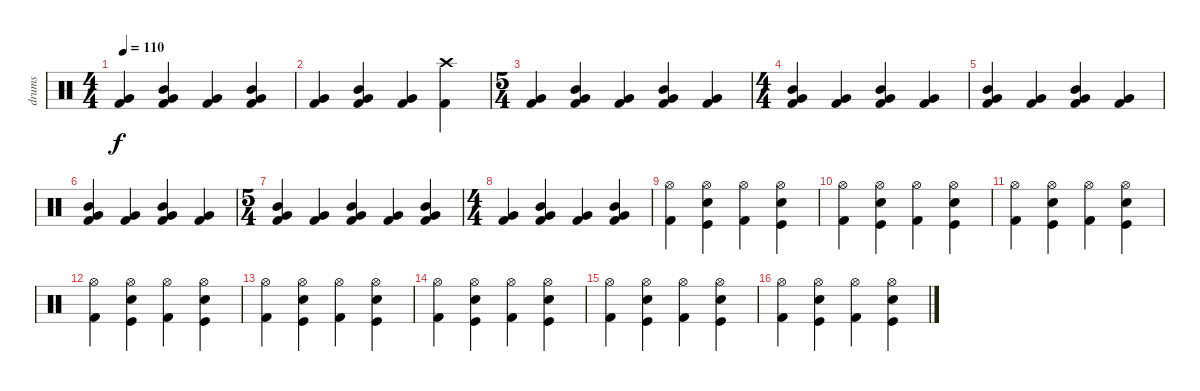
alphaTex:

\track ("drums" "drums") {instrument percussion}
\staff {score}
\articulation defaults
\ts (4 4)
\tempo 110
\clef neutral
\ks c
("Very Low Tom (hit)" "Kick (hit) 2").4{dy f} ("Mid Tom (hit)" "Very Low Tom (hit)" "Kick (hit) 2").4 ("Very Low Tom (hit)" "Kick (hit) 2").4 ("Mid Tom (hit)" "Very Low Tom (hit)" "Kick (hit) 2").4 |
("Very Low Tom (hit)" "Kick (hit) 2").4 ("Mid Tom (hit)" "Very Low Tom (hit)" "Kick (hit) 2").4 ("Very Low Tom (hit)" "Kick (hit) 2").4 ("Crash high (hit)" "Kick (hit) 2").4 |
\ts (5 4)
("Very Low Tom (hit)" "Kick (hit) 2").4 ("Mid Tom (hit)" "Very Low Tom (hit)" "Kick (hit) 2").4 ("Very Low Tom (hit)" "Kick (hit) 2").4 ("Mid Tom (hit)" "Very Low Tom (hit)" "Kick (hit) 2").4 ("Very Low Tom (hit)" "Kick (hit) 2").4 |
\ts (4 4)
("Mid Tom (hit)" "Very Low Tom (hit)" "Kick (hit) 2").4 ("Very Low Tom (hit)" "Kick (hit) 2").4 ("Mid Tom (hit)" "Very Low Tom (hit)" "Kick (hit) 2").4 ("Very Low Tom (hit)" "Kick (hit) 2").4 |
("Mid Tom (hit)" "Very Low Tom (hit)" "Kick (hit) 2").4 ("Very Low Tom (hit)" "Kick (hit) 2").4 ("Mid Tom (hit)" "Very Low Tom (hit)" "Kick (hit) 2").4 ("Very Low Tom (hit)" "Kick (hit) 2").4 |
("Mid Tom (hit)" "Very Low Tom (hit)" "Kick (hit) 2").4 ("Very Low Tom (hit)" "Kick (hit) 2").4 ("Mid Tom (hit)" "Very Low Tom (hit)" "Kick (hit) 2").4 ("Very Low Tom (hit)" "Kick (hit) 2").4 |
\ts (5 4)
("Mid Tom (hit)" "Very Low Tom (hit)" "Kick (hit) 2").4 ("Very Low Tom (hit)" "Kick (hit) 2").4 ("Mid Tom (hit)" "Very Low Tom (hit)" "Kick (hit) 2").4 ("Very Low Tom (hit)" "Kick (hit) 2").4 ("Mid Tom (hit)" "Very Low Tom (hit)" "Kick (hit) 2").4 |
\ts (4 4)
("Very Low Tom (hit)" "Kick (hit) 2").4 ("Mid Tom (hit)" "Very Low Tom (hit)" "Kick (hit) 2").4 ("Very Low Tom (hit)" "Kick (hit) 2").4 ("Mid Tom (hit)" "Very Low Tom (hit)" "Kick (hit) 2").4 |
("Hi-Hat (open)" "Kick (hit) 2").4 ("Hi-Hat (open)" "Snare (hit) 2" "Kick (hit)").4 ("Hi-Hat (open)" "Kick (hit) 2").4 ("Hi-Hat (open)" "Snare (hit) 2" "Kick (hit)").4 |
("Hi-Hat (open)" "Kick (hit) 2").4 ("Hi-Hat (open)" "Snare (hit) 2" "Kick (hit)").4 ("Hi-Hat (open)" "Kick (hit) 2").4 ("Hi-Hat (open)" "Snare (hit) 2" "Kick (hit)").4 |
("Hi-Hat (open)" "Kick (hit) 2").4 ("Hi-Hat (open)" "Snare (hit) 2" "Kick (hit)").4 ("Hi-Hat (open)" "Kick (hit) 2").4 ("Hi-Hat (open)" "Snare (hit) 2" "Kick (hit)").4 |
("Hi-Hat (open)" "Kick (hit) 2").4 ("Hi-Hat (open)" "Snare (hit) 2" "Kick (hit)").4 ("Hi-Hat (open)" "Kick (hit) 2").4 ("Hi-Hat (open)" "Snare (hit) 2" "Kick (hit)").4 |
("Hi-Hat (open)" "Kick (hit) 2").4 ("Hi-Hat (open)" "Snare (hit) 2" "Kick (hit)").4 ("Hi-Hat (open)" "Kick (hit) 2").4 ("Hi-Hat (open)" "Snare (hit) 2" "Kick (hit)").4 |
("Hi-Hat (open)" "Kick (hit) 2").4 ("Hi-Hat (open)" "Snare (hit) 2" "Kick (hit)").4 ("Hi-Hat (open)" "Kick (hit) 2").4 ("Hi-Hat (open)" "Snare (hit) 2" "Kick (hit)").4 |
("Hi-Hat (open)" "Kick (hit) 2").4 ("Hi-Hat (open)" "Snare (hit) 2" "Kick (hit)").4 ("Hi-Hat (open)" "Kick (hit) 2").4 ("Hi-Hat (open)" "Snare (hit) 2" "Kick (hit)").4 |
("Hi-Hat (open)" "Kick (hit) 2").4 ("Hi-Hat (open)" "Snare (hit) 2" "Kick (hit)").4 ("Hi-Hat (open)" "Kick (hit) 2").4 ("Hi-Hat (open)" "Snare (hit) 2" "Kick (hit)").4
